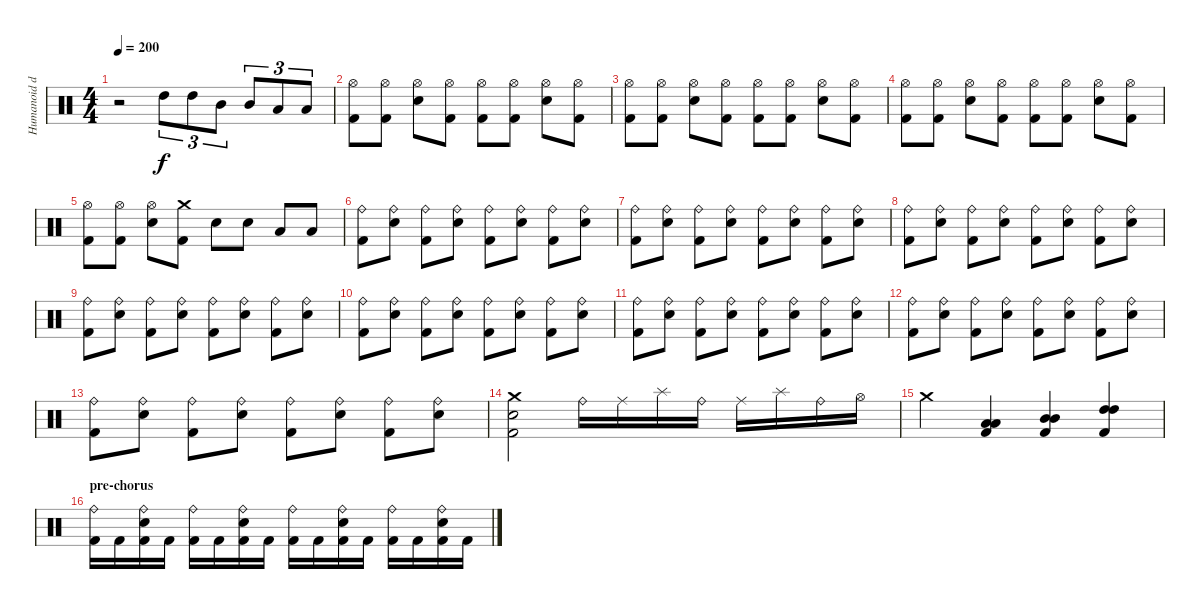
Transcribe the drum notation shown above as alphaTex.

\track ("Humanoid drum machine" "Humanoid d") {instrument percussion}
\staff {score}
\articulation defaults
\ts (4 4)
\tempo 200
\clef neutral
\ks c
r.2{dy f} "High Tom (hit)".8{tu (3 2)} "High Tom (hit)".8{tu (3 2)} "Mid Tom (hit)".8{tu (3 2)} "Mid Tom (hit)".8{tu (3 2)} "Low Tom (hit)".8{tu (3 2)} "Low Tom (hit)".8{tu (3 2)} |
("Hi-Hat (open)" "Kick (hit) 2").8 ("Hi-Hat (open)" "Kick (hit) 2").8 ("Hi-Hat (open)" "Electric Snare (hit)").8 ("Hi-Hat (open)" "Kick (hit) 2").8 ("Hi-Hat (open)" "Kick (hit) 2").8 ("Hi-Hat (open)" "Kick (hit) 2").8 ("Hi-Hat (open)" "Electric Snare (hit)").8 ("Hi-Hat (open)" "Kick (hit) 2").8 |
("Hi-Hat (open)" "Kick (hit) 2").8 ("Hi-Hat (open)" "Kick (hit) 2").8 ("Hi-Hat (open)" "Electric Snare (hit)").8 ("Hi-Hat (open)" "Kick (hit) 2").8 ("Hi-Hat (open)" "Kick (hit) 2").8 ("Hi-Hat (open)" "Kick (hit) 2").8 ("Hi-Hat (open)" "Electric Snare (hit)").8 ("Hi-Hat (open)" "Kick (hit) 2").8 |
("Hi-Hat (open)" "Kick (hit) 2").8 ("Hi-Hat (open)" "Kick (hit) 2").8 ("Hi-Hat (open)" "Electric Snare (hit)").8 ("Hi-Hat (open)" "Kick (hit) 2").8 ("Hi-Hat (open)" "Kick (hit) 2").8 ("Hi-Hat (open)" "Kick (hit) 2").8 ("Hi-Hat (open)" "Electric Snare (hit)").8 ("Hi-Hat (open)" "Kick (hit) 2").8 |
("Hi-Hat (open)" "Kick (hit) 2").8 ("Hi-Hat (open)" "Kick (hit) 2").8 ("Hi-Hat (open)" "Electric Snare (hit)").8 ("Crash medium (hit)" "Kick (hit) 2").8 "Electric Snare (hit)".8 "Electric Snare (hit)".8 "Low Tom (hit)".8 "Low Tom (hit)".8 |
("Ride (bell)" "Kick (hit) 2").8 ("Ride (bell)" "Electric Snare (hit)").8 ("Ride (bell)" "Kick (hit) 2").8 ("Ride (bell)" "Electric Snare (hit)").8 ("Ride (bell)" "Kick (hit) 2").8 ("Ride (bell)" "Electric Snare (hit)").8 ("Ride (bell)" "Kick (hit) 2").8 ("Ride (bell)" "Electric Snare (hit)").8 |
("Ride (bell)" "Kick (hit) 2").8 ("Ride (bell)" "Electric Snare (hit)").8 ("Ride (bell)" "Kick (hit) 2").8 ("Ride (bell)" "Electric Snare (hit)").8 ("Ride (bell)" "Kick (hit) 2").8 ("Ride (bell)" "Electric Snare (hit)").8 ("Ride (bell)" "Kick (hit) 2").8 ("Ride (bell)" "Electric Snare (hit)").8 |
("Ride (bell)" "Kick (hit) 2").8 ("Ride (bell)" "Electric Snare (hit)").8 ("Ride (bell)" "Kick (hit) 2").8 ("Ride (bell)" "Electric Snare (hit)").8 ("Ride (bell)" "Kick (hit) 2").8 ("Ride (bell)" "Electric Snare (hit)").8 ("Ride (bell)" "Kick (hit) 2").8 ("Ride (bell)" "Electric Snare (hit)").8 |
("Ride (bell)" "Kick (hit) 2").8 ("Ride (bell)" "Electric Snare (hit)").8 ("Ride (bell)" "Kick (hit) 2").8 ("Ride (bell)" "Electric Snare (hit)").8 ("Ride (bell)" "Kick (hit) 2").8 ("Ride (bell)" "Electric Snare (hit)").8 ("Ride (bell)" "Kick (hit) 2").8 ("Ride (bell)" "Electric Snare (hit)").8 |
("Ride (bell)" "Kick (hit) 2").8 ("Ride (bell)" "Electric Snare (hit)").8 ("Ride (bell)" "Kick (hit) 2").8 ("Ride (bell)" "Electric Snare (hit)").8 ("Ride (bell)" "Kick (hit) 2").8 ("Ride (bell)" "Electric Snare (hit)").8 ("Ride (bell)" "Kick (hit) 2").8 ("Ride (bell)" "Electric Snare (hit)").8 |
("Ride (bell)" "Kick (hit) 2").8 ("Ride (bell)" "Electric Snare (hit)").8 ("Ride (bell)" "Kick (hit) 2").8 ("Ride (bell)" "Electric Snare (hit)").8 ("Ride (bell)" "Kick (hit) 2").8 ("Ride (bell)" "Electric Snare (hit)").8 ("Ride (bell)" "Kick (hit) 2").8 ("Ride (bell)" "Electric Snare (hit)").8 |
("Ride (bell)" "Kick (hit) 2").8 ("Ride (bell)" "Electric Snare (hit)").8 ("Ride (bell)" "Kick (hit) 2").8 ("Ride (bell)" "Electric Snare (hit)").8 ("Ride (bell)" "Kick (hit) 2").8 ("Ride (bell)" "Electric Snare (hit)").8 ("Ride (bell)" "Kick (hit) 2").8 ("Ride (bell)" "Electric Snare (hit)").8 |
("Ride (bell)" "Kick (hit) 2").8 ("Ride (bell)" "Electric Snare (hit)").8 ("Ride (bell)" "Kick (hit) 2").8 ("Ride (bell)" "Electric Snare (hit)").8 ("Ride (bell)" "Kick (hit) 2").8 ("Ride (bell)" "Electric Snare (hit)").8 ("Ride (bell)" "Kick (hit) 2").8 ("Ride (bell)" "Electric Snare (hit)").8 |
("Crash medium (hit)" "Electric Snare (hit)" "Kick (hit) 2").2 "Ride (bell)".16 "Ride (middle)".16 "Splash (hit)".16 "Ride (bell)".16 "Ride (middle)".16 "Splash (hit)".16 "Ride (bell)".16 "Hi-Hat (open)".16 |
"Crash medium (hit)".4 ("Low Tom (hit)" "Low Tom (hit)" "Kick (hit) 2").4 ("Mid Tom (hit)" "Mid Tom (hit)" "Kick (hit) 2").4 ("High Tom (hit)" "High Tom (hit)" "Kick (hit) 2").4 |
\section ("" "pre-chorus")
("Ride (bell)" "Kick (hit) 2").16 "Kick (hit) 2".16 ("Ride (bell)" "Electric Snare (hit)" "Kick (hit) 2").16 "Kick (hit) 2".16 ("Ride (bell)" "Kick (hit) 2").16 "Kick (hit) 2".16 ("Ride (bell)" "Electric Snare (hit)" "Kick (hit) 2").16 "Kick (hit) 2".16 ("Ride (bell)" "Kick (hit) 2").16 "Kick (hit) 2".16 ("Ride (bell)" "Electric Snare (hit)" "Kick (hit) 2").16 "Kick (hit) 2".16 ("Ride (bell)" "Kick (hit) 2").16 "Kick (hit) 2".16 ("Ride (bell)" "Electric Snare (hit)" "Kick (hit) 2").16 "Kick (hit) 2".16
